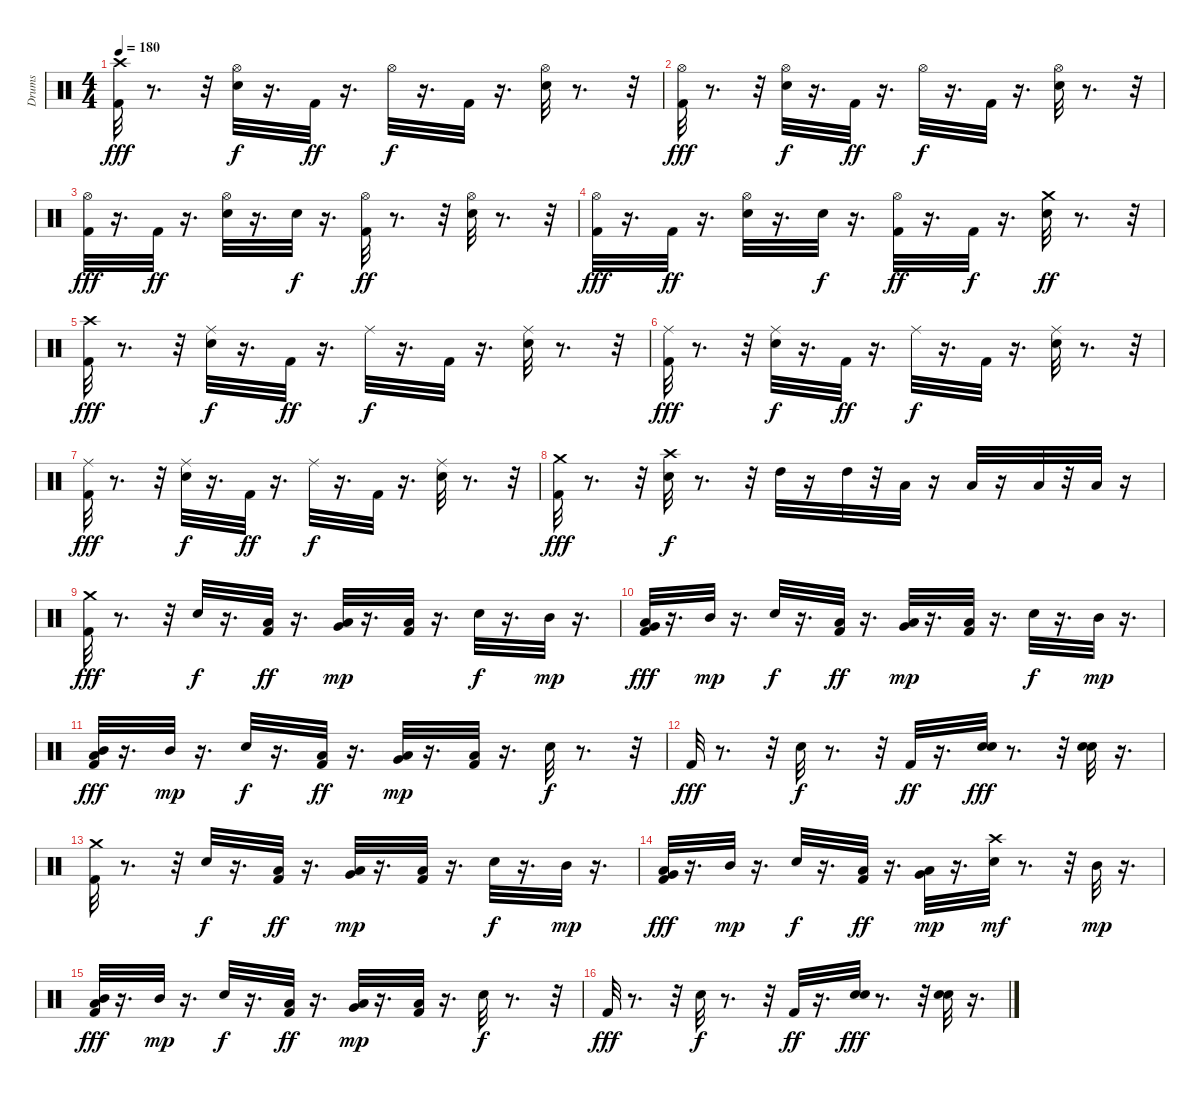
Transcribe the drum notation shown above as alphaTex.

\track ("Drums" "Drums") {instrument percussion}
\staff {score}
\articulation defaults
\ts (4 4)
\tempo 180
\clef neutral
\ks c
("Kick (hit) 2" "Crash high (hit)").32{dy fff} r.8{d} r.32 ("Hi-Hat (open)" "Snare (hit) 2").32{dy f} r.16{d} "Kick (hit) 2".32{dy ff} r.16{d} "Hi-Hat (open)".32{dy f} r.16{d} "Kick (hit) 2".32 r.16{d} ("Hi-Hat (open)" "Snare (hit) 2").32 r.8{d} r.32 |
("Hi-Hat (open)" "Kick (hit) 2").32{dy fff} r.8{d} r.32 ("Hi-Hat (open)" "Snare (hit) 2").32{dy f} r.16{d} "Kick (hit) 2".32{dy ff} r.16{d} "Hi-Hat (open)".32{dy f} r.16{d} "Kick (hit) 2".32 r.16{d} ("Hi-Hat (open)" "Snare (hit) 2").32 r.8{d} r.32 |
("Hi-Hat (open)" "Kick (hit) 2").32{dy fff} r.16{d} "Kick (hit) 2".32{dy ff} r.16{d} ("Hi-Hat (open)" "Snare (hit) 2").32 r.16{d} "Snare (hit) 2".32{dy f} r.16{d} ("Kick (hit) 2" "Hi-Hat (open)").32{dy ff} r.8{d} r.32 ("Hi-Hat (open)" "Snare (hit) 2").32 r.8{d} r.32 |
("Hi-Hat (open)" "Kick (hit) 2").32{dy fff} r.16{d} "Kick (hit) 2".32{dy ff} r.16{d} ("Hi-Hat (open)" "Snare (hit) 2").32 r.16{d} "Snare (hit) 2".32{dy f} r.16{d} ("Kick (hit) 2" "Hi-Hat (open)").32{dy ff} r.16{d} "Kick (hit) 2".32{dy f} r.16{d} ("Crash medium (hit)" "Snare (hit) 2").32{dy ff} r.8{d} r.32 |
("Kick (hit) 2" "Crash high (hit)").32{dy fff} r.8{d} r.32 ("Ride (middle)" "Snare (hit) 2").32{dy f} r.16{d} "Kick (hit) 2".32{dy ff} r.16{d} "Ride (middle)".32{dy f} r.16{d} "Kick (hit) 2".32 r.16{d} ("Ride (middle)" "Snare (hit) 2").32 r.8{d} r.32 |
("Ride (middle)" "Kick (hit) 2").32{dy fff} r.8{d} r.32 ("Ride (middle)" "Snare (hit) 2").32{dy f} r.16{d} "Kick (hit) 2".32{dy ff} r.16{d} "Ride (middle)".32{dy f} r.16{d} "Kick (hit) 2".32 r.16{d} ("Ride (middle)" "Snare (hit) 2").32 r.8{d} r.32 |
("Ride (middle)" "Kick (hit) 2").32{dy fff} r.8{d} r.32 ("Ride (middle)" "Snare (hit) 2").32{dy f} r.16{d} "Kick (hit) 2".32{dy ff} r.16{d} "Ride (middle)".32{dy f} r.16{d} "Kick (hit) 2".32 r.16{d} ("Ride (middle)" "Snare (hit) 2").32 r.8{d} r.32 |
("Crash medium (hit)" "Kick (hit) 2").32{dy fff} r.8{d} r.32 ("Crash high (hit)" "Snare (hit) 2").32{dy f} r.8{d} r.32 "High Tom (hit)".32 r.16 "High Tom (hit)".32 r.32 "Low Tom (hit)".32 r.16 "Low Tom (hit)".32 r.16 "Low Floor Tom (hit)".32 r.32 "Low Floor Tom (hit)".32 r.16 |
("Kick (hit) 2" "Crash medium (hit)").32{dy fff} r.8{d} r.32 "Snare (hit) 2".32{dy f} r.16{d} ("Low Tom (hit)" "Kick (hit) 2").32{dy ff} r.16{d} ("Very Low Tom (hit)" "Low Floor Tom (hit)").32{dy mp} r.16{d} ("Low Tom (hit)" "Kick (hit) 2").32 r.16{d} "Snare (hit) 2".32{dy f} r.16{d} "Mid Tom (hit)".32{dy mp} r.16{d} |
("Low Tom (hit)" "Very Low Tom (hit)" "Kick (hit) 2").32{dy fff} r.16{d} "Mid Tom (hit)".32{dy mp} r.16{d} "Snare (hit) 2".32{dy f} r.16{d} ("Low Tom (hit)" "Kick (hit) 2").32{dy ff} r.16{d} ("Very Low Tom (hit)" "Low Floor Tom (hit)").32{dy mp} r.16{d} ("Low Tom (hit)" "Kick (hit) 2").32 r.16{d} "Snare (hit) 2".32{dy f} r.16{d} "Mid Tom (hit)".32{dy mp} r.16{d} |
("Mid Tom (hit)" "Low Tom (hit)" "Kick (hit) 2").32{dy fff} r.16{d} "Mid Tom (hit)".32{dy mp} r.16{d} "Snare (hit) 2".32{dy f} r.16{d} ("Low Tom (hit)" "Kick (hit) 2").32{dy ff} r.16{d} ("Very Low Tom (hit)" "Low Floor Tom (hit)").32{dy mp} r.16{d} ("Low Tom (hit)" "Kick (hit) 2").32 r.16{d} "Snare (hit) 2".32{dy f} r.8{d} r.32 |
"Kick (hit) 2".32{dy fff} r.8{d} r.32 "Snare (hit) 2".32{dy f} r.8{d} r.32 "Kick (hit) 2".32{dy ff} r.16{d} ("Electric Snare (hit)" "Snare (hit) 2").32{dy fff} r.8{d} r.32 ("Electric Snare (hit)" "Snare (hit) 2").32 r.16{d} |
("Kick (hit) 2" "Crash medium (hit)").32 r.8{d} r.32 "Snare (hit) 2".32{dy f} r.16{d} ("Low Tom (hit)" "Kick (hit) 2").32{dy ff} r.16{d} ("Very Low Tom (hit)" "Low Floor Tom (hit)").32{dy mp} r.16{d} ("Low Tom (hit)" "Kick (hit) 2").32 r.16{d} "Snare (hit) 2".32{dy f} r.16{d} "Mid Tom (hit)".32{dy mp} r.16{d} |
("Low Tom (hit)" "Very Low Tom (hit)" "Kick (hit) 2").32{dy fff} r.16{d} "Mid Tom (hit)".32{dy mp} r.16{d} "Snare (hit) 2".32{dy f} r.16{d} ("Low Tom (hit)" "Kick (hit) 2").32{dy ff} r.16{d} ("Very Low Tom (hit)" "Low Floor Tom (hit)").32{dy mp} r.16{d} ("Crash high (hit)" "Snare (hit) 2").32{dy mf} r.8{d} r.32 "Mid Tom (hit)".32{dy mp} r.16{d} |
("Mid Tom (hit)" "Low Tom (hit)" "Kick (hit) 2").32{dy fff} r.16{d} "Mid Tom (hit)".32{dy mp} r.16{d} "Snare (hit) 2".32{dy f} r.16{d} ("Low Tom (hit)" "Kick (hit) 2").32{dy ff} r.16{d} ("Very Low Tom (hit)" "Low Floor Tom (hit)").32{dy mp} r.16{d} ("Low Tom (hit)" "Kick (hit) 2").32 r.16{d} "Snare (hit) 2".32{dy f} r.8{d} r.32 |
"Kick (hit) 2".32{dy fff} r.8{d} r.32 "Snare (hit) 2".32{dy f} r.8{d} r.32 "Kick (hit) 2".32{dy ff} r.16{d} ("Electric Snare (hit)" "Snare (hit) 2").32{dy fff} r.8{d} r.32 ("Electric Snare (hit)" "Snare (hit) 2").32 r.16{d}
